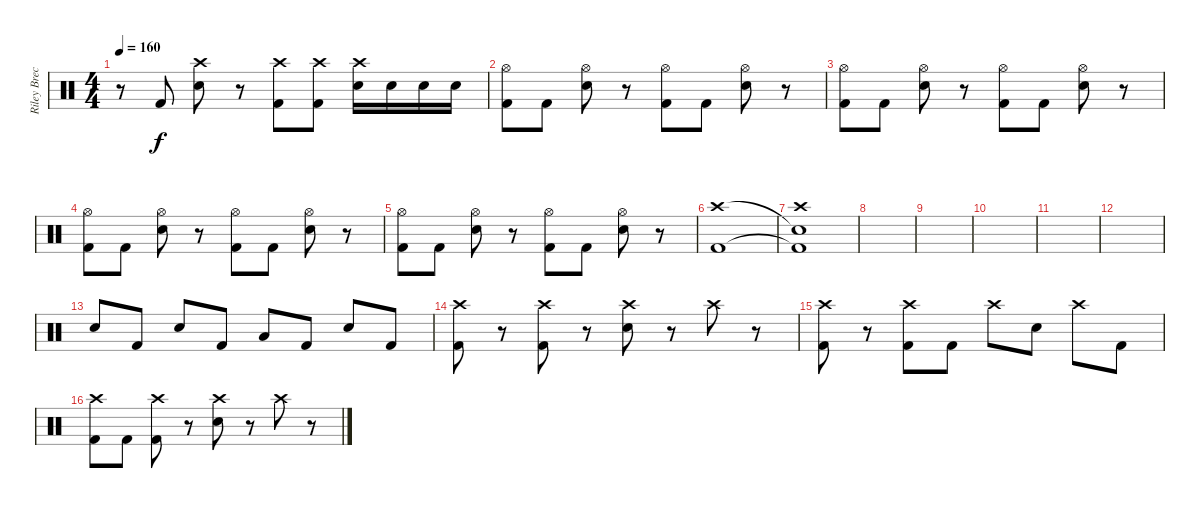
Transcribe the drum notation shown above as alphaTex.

\track ("Riley Breckenridge" "Riley Brec") {instrument percussion}
\staff {score}
\articulation defaults
\ts (4 4)
\tempo 160
\clef neutral
\ks c
r.8{dy f} "Kick (hit) 2".8 ("Electric Snare (hit)" "Crash high (hit)").8 r.8 ("Kick (hit) 2" "Crash high (hit)").8 ("Kick (hit) 2" "Crash high (hit)").8 ("Electric Snare (hit)" "Crash high (hit)").16 "Electric Snare (hit)".16 "Electric Snare (hit)".16 "Electric Snare (hit)".16 |
("Kick (hit) 2" "Hi-Hat (open)").8 "Kick (hit) 2".8 ("Electric Snare (hit)" "Hi-Hat (open)").8 r.8 ("Kick (hit) 2" "Hi-Hat (open)").8 "Kick (hit) 2".8 ("Electric Snare (hit)" "Hi-Hat (open)").8 r.8 |
("Kick (hit) 2" "Hi-Hat (open)").8 "Kick (hit) 2".8 ("Electric Snare (hit)" "Hi-Hat (open)").8 r.8 ("Kick (hit) 2" "Hi-Hat (open)").8 "Kick (hit) 2".8 ("Electric Snare (hit)" "Hi-Hat (open)").8 r.8 |
("Kick (hit) 2" "Hi-Hat (open)").8 "Kick (hit) 2".8 ("Electric Snare (hit)" "Hi-Hat (open)").8 r.8 ("Kick (hit) 2" "Hi-Hat (open)").8 "Kick (hit) 2".8 ("Electric Snare (hit)" "Hi-Hat (open)").8 r.8 |
("Kick (hit) 2" "Hi-Hat (open)").8 "Kick (hit) 2".8 ("Electric Snare (hit)" "Hi-Hat (open)").8 r.8 ("Kick (hit) 2" "Hi-Hat (open)").8 "Kick (hit) 2".8 ("Electric Snare (hit)" "Hi-Hat (open)").8 r.8 |
("Kick (hit) 2" "Crash high (hit)").1 |
("Kick (hit) 2"{t} "Snare (hit)"{t} "Crash high (hit)").1 |
|
|
|
|
|
"Electric Snare (hit)".8 "Kick (hit) 2".8 "Electric Snare (hit)".8 "Kick (hit) 2".8 "Low Floor Tom (hit)".8 "Kick (hit) 2".8 "Electric Snare (hit)".8 "Kick (hit) 2".8 |
("Kick (hit) 2" "Crash high (hit)").8 r.8 ("Kick (hit) 2" "Crash high (hit)").8 r.8 ("Electric Snare (hit)" "Crash high (hit)").8 r.8 "Crash high (hit)".8 r.8 |
("Kick (hit) 2" "Crash high (hit)").8 r.8 ("Kick (hit) 2" "Crash high (hit)").8 "Kick (hit) 2".8 "Crash high (hit)".8 "Electric Snare (hit)".8 "Crash high (hit)".8 "Kick (hit) 2".8 |
("Kick (hit) 2" "Crash high (hit)").8 "Kick (hit) 2".8 ("Kick (hit) 2" "Crash high (hit)").8 r.8 ("Electric Snare (hit)" "Crash high (hit)").8 r.8 "Crash high (hit)".8 r.8
